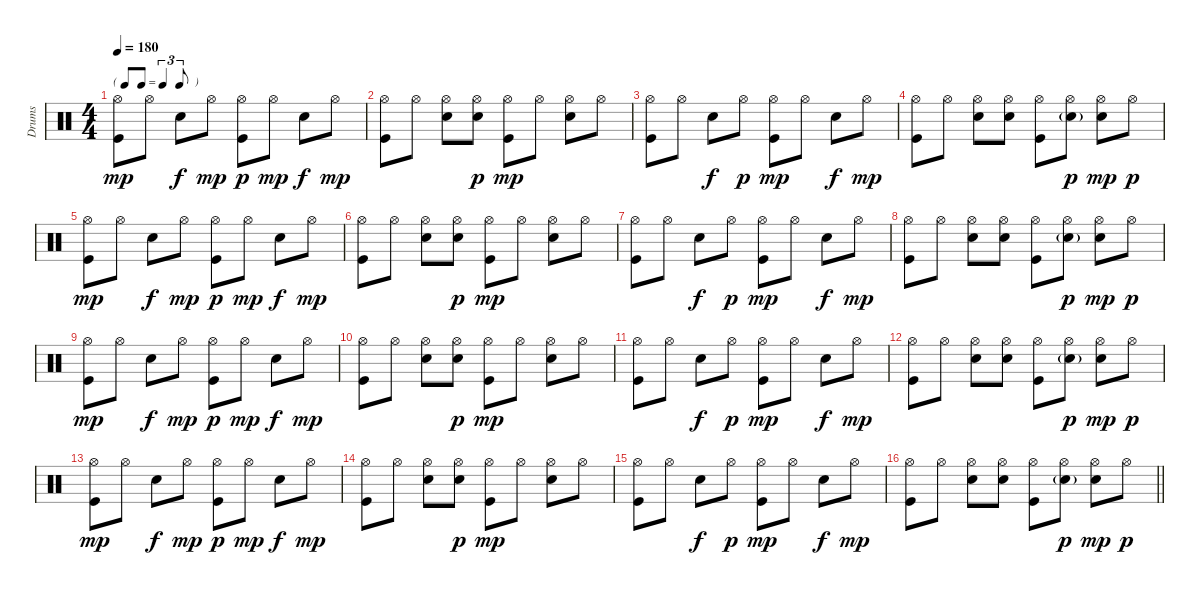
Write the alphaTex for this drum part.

\track ("Drums" "Drums") {instrument percussion}
\staff {score}
\articulation defaults
\ts (4 4)
\tf triplet8th
\tempo 180
\clef neutral
\ks c
("Hi-Hat (open)" "Kick (hit)").8{dy mp} "Hi-Hat (open)".8 "Electric Snare (hit)".8{dy f} "Hi-Hat (open)".8{dy mp} ("Hi-Hat (open)" "Kick (hit)").8{dy p} "Hi-Hat (open)".8{dy mp} "Electric Snare (hit)".8{dy f} "Hi-Hat (open)".8{dy mp} |
("Hi-Hat (open)" "Kick (hit)").8 "Hi-Hat (open)".8 ("Hi-Hat (open)" "Electric Snare (hit)").8 ("Electric Snare (hit)" "Hi-Hat (open)").8{dy p} ("Hi-Hat (open)" "Kick (hit)").8{dy mp} "Hi-Hat (open)".8 ("Hi-Hat (open)" "Electric Snare (hit)").8 "Hi-Hat (open)".8 |
("Hi-Hat (open)" "Kick (hit)").8 "Hi-Hat (open)".8 "Electric Snare (hit)".8{dy f} "Hi-Hat (open)".8{dy p} ("Hi-Hat (open)" "Kick (hit)").8{dy mp} "Hi-Hat (open)".8 "Electric Snare (hit)".8{dy f} "Hi-Hat (open)".8{dy mp} |
("Hi-Hat (open)" "Kick (hit)").8 "Hi-Hat (open)".8 ("Hi-Hat (open)" "Electric Snare (hit)").8 ("Electric Snare (hit)" "Hi-Hat (open)").8 ("Hi-Hat (open)" "Kick (hit)").8 ("Electric Snare (hit)"{g} "Hi-Hat (open)").8{dy p} ("Hi-Hat (open)" "Electric Snare (hit)").8{dy mp} "Hi-Hat (open)".8{dy p} |
("Hi-Hat (open)" "Kick (hit)").8{dy mp} "Hi-Hat (open)".8 "Electric Snare (hit)".8{dy f} "Hi-Hat (open)".8{dy mp} ("Hi-Hat (open)" "Kick (hit)").8{dy p} "Hi-Hat (open)".8{dy mp} "Electric Snare (hit)".8{dy f} "Hi-Hat (open)".8{dy mp} |
("Hi-Hat (open)" "Kick (hit)").8 "Hi-Hat (open)".8 ("Hi-Hat (open)" "Electric Snare (hit)").8 ("Electric Snare (hit)" "Hi-Hat (open)").8{dy p} ("Hi-Hat (open)" "Kick (hit)").8{dy mp} "Hi-Hat (open)".8 ("Hi-Hat (open)" "Electric Snare (hit)").8 "Hi-Hat (open)".8 |
("Hi-Hat (open)" "Kick (hit)").8 "Hi-Hat (open)".8 "Electric Snare (hit)".8{dy f} "Hi-Hat (open)".8{dy p} ("Hi-Hat (open)" "Kick (hit)").8{dy mp} "Hi-Hat (open)".8 "Electric Snare (hit)".8{dy f} "Hi-Hat (open)".8{dy mp} |
("Hi-Hat (open)" "Kick (hit)").8 "Hi-Hat (open)".8 ("Hi-Hat (open)" "Electric Snare (hit)").8 ("Electric Snare (hit)" "Hi-Hat (open)").8 ("Hi-Hat (open)" "Kick (hit)").8 ("Electric Snare (hit)"{g} "Hi-Hat (open)").8{dy p} ("Hi-Hat (open)" "Electric Snare (hit)").8{dy mp} "Hi-Hat (open)".8{dy p} |
("Hi-Hat (open)" "Kick (hit)").8{dy mp} "Hi-Hat (open)".8 "Electric Snare (hit)".8{dy f} "Hi-Hat (open)".8{dy mp} ("Hi-Hat (open)" "Kick (hit)").8{dy p} "Hi-Hat (open)".8{dy mp} "Electric Snare (hit)".8{dy f} "Hi-Hat (open)".8{dy mp} |
("Hi-Hat (open)" "Kick (hit)").8 "Hi-Hat (open)".8 ("Hi-Hat (open)" "Electric Snare (hit)").8 ("Electric Snare (hit)" "Hi-Hat (open)").8{dy p} ("Hi-Hat (open)" "Kick (hit)").8{dy mp} "Hi-Hat (open)".8 ("Hi-Hat (open)" "Electric Snare (hit)").8 "Hi-Hat (open)".8 |
("Hi-Hat (open)" "Kick (hit)").8 "Hi-Hat (open)".8 "Electric Snare (hit)".8{dy f} "Hi-Hat (open)".8{dy p} ("Hi-Hat (open)" "Kick (hit)").8{dy mp} "Hi-Hat (open)".8 "Electric Snare (hit)".8{dy f} "Hi-Hat (open)".8{dy mp} |
("Hi-Hat (open)" "Kick (hit)").8 "Hi-Hat (open)".8 ("Hi-Hat (open)" "Electric Snare (hit)").8 ("Electric Snare (hit)" "Hi-Hat (open)").8 ("Hi-Hat (open)" "Kick (hit)").8 ("Electric Snare (hit)"{g} "Hi-Hat (open)").8{dy p} ("Hi-Hat (open)" "Electric Snare (hit)").8{dy mp} "Hi-Hat (open)".8{dy p} |
("Hi-Hat (open)" "Kick (hit)").8{dy mp} "Hi-Hat (open)".8 "Electric Snare (hit)".8{dy f} "Hi-Hat (open)".8{dy mp} ("Hi-Hat (open)" "Kick (hit)").8{dy p} "Hi-Hat (open)".8{dy mp} "Electric Snare (hit)".8{dy f} "Hi-Hat (open)".8{dy mp} |
("Hi-Hat (open)" "Kick (hit)").8 "Hi-Hat (open)".8 ("Hi-Hat (open)" "Electric Snare (hit)").8 ("Electric Snare (hit)" "Hi-Hat (open)").8{dy p} ("Hi-Hat (open)" "Kick (hit)").8{dy mp} "Hi-Hat (open)".8 ("Hi-Hat (open)" "Electric Snare (hit)").8 "Hi-Hat (open)".8 |
("Hi-Hat (open)" "Kick (hit)").8 "Hi-Hat (open)".8 "Electric Snare (hit)".8{dy f} "Hi-Hat (open)".8{dy p} ("Hi-Hat (open)" "Kick (hit)").8{dy mp} "Hi-Hat (open)".8 "Electric Snare (hit)".8{dy f} "Hi-Hat (open)".8{dy mp} |
\barLineRight lightlight
("Hi-Hat (open)" "Kick (hit)").8 "Hi-Hat (open)".8 ("Hi-Hat (open)" "Electric Snare (hit)").8 ("Electric Snare (hit)" "Hi-Hat (open)").8 ("Hi-Hat (open)" "Kick (hit)").8 ("Electric Snare (hit)"{g} "Hi-Hat (open)").8{dy p} ("Hi-Hat (open)" "Electric Snare (hit)").8{dy mp} "Hi-Hat (open)".8{dy p}
